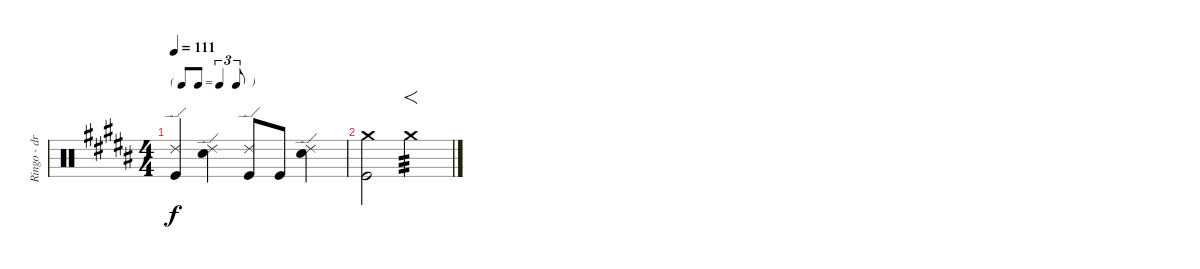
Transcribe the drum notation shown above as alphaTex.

\track ("Ringo - drums" "Ringo - dr") {instrument percussion}
\staff {score}
\articulation defaults
\ts (4 4)
\tf triplet8th
\tempo 111
\clef neutral
\ks b
("Ride (edge) 2" "Kick (hit)").4{dy f} ("Ride (edge) 2" "Snare (hit) 2").4 ("Ride (edge) 2" "Kick (hit)").8 "Kick (hit)".8 ("Ride (edge) 2" "Snare (hit) 2").4 |
("Crash medium (hit)" "Kick (hit)").2 "Crash medium (hit)".2{f tp 3}
